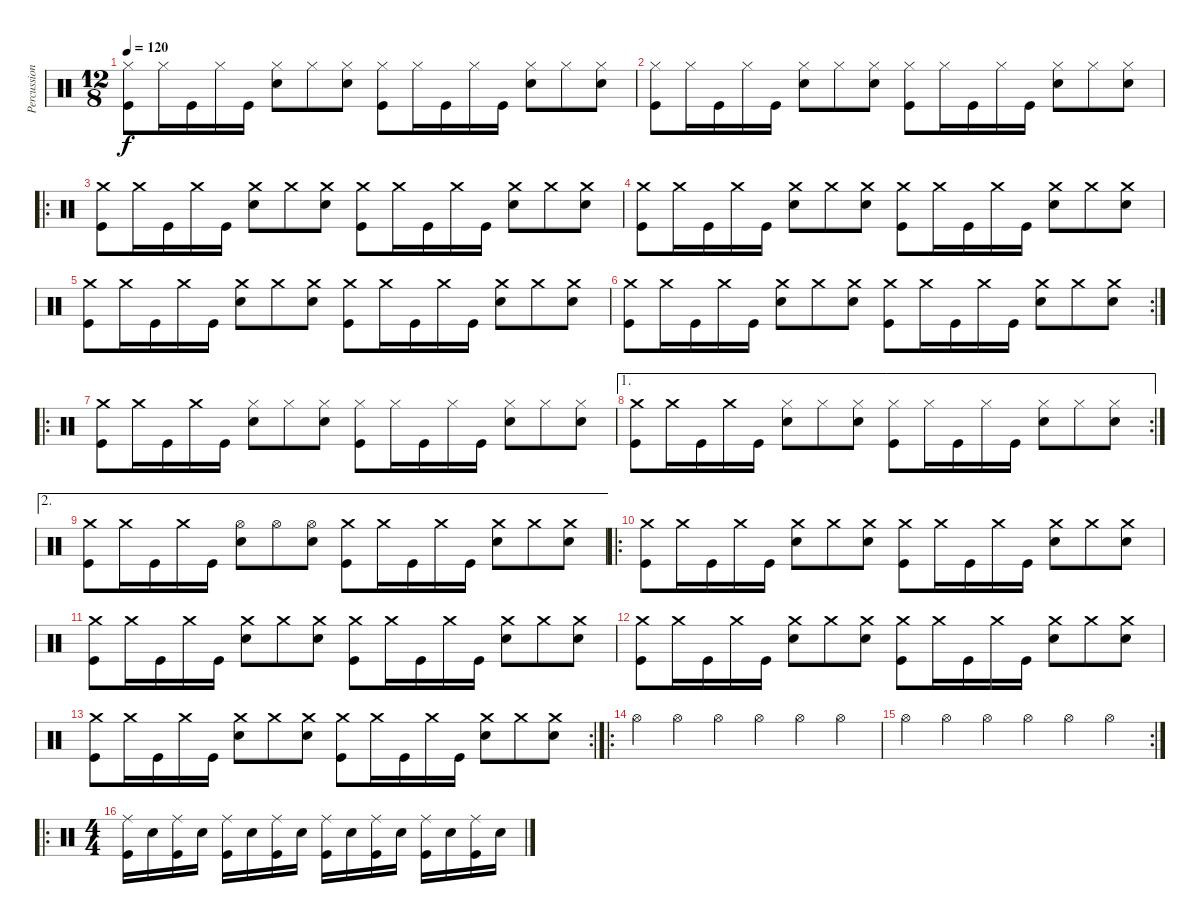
\track ("Percussion" "Percussion") {instrument percussion}
\staff {score}
\articulation defaults
\ts (12 8)
\tempo 120
\clef neutral
\ks c
("Hi-Hat (closed)" "Kick (hit)").8{dy f} "Hi-Hat (closed)".16 "Kick (hit)".16 "Hi-Hat (closed)".16 "Kick (hit)".16 ("Hi-Hat (closed)" "Snare (hit) 2").8 "Hi-Hat (closed)".8 ("Hi-Hat (closed)" "Snare (hit) 2").8 ("Hi-Hat (closed)" "Kick (hit)").8 "Hi-Hat (closed)".16 "Kick (hit)".16 "Hi-Hat (closed)".16 "Kick (hit)".16 ("Hi-Hat (closed)" "Snare (hit) 2").8 "Hi-Hat (closed)".8 ("Hi-Hat (closed)" "Snare (hit) 2").8 |
("Hi-Hat (closed)" "Kick (hit)").8 "Hi-Hat (closed)".16 "Kick (hit)".16 "Hi-Hat (closed)".16 "Kick (hit)".16 ("Hi-Hat (closed)" "Snare (hit) 2").8 "Hi-Hat (closed)".8 ("Hi-Hat (closed)" "Snare (hit) 2").8 ("Hi-Hat (closed)" "Kick (hit)").8 "Hi-Hat (closed)".16 "Kick (hit)".16 "Hi-Hat (closed)".16 "Kick (hit)".16 ("Hi-Hat (closed)" "Snare (hit) 2").8 "Hi-Hat (closed)".8 ("Hi-Hat (closed)" "Snare (hit) 2").8 |
\ro
("Crash medium (hit)" "Kick (hit)").8 "Crash medium (hit)".16 "Kick (hit)".16 "Crash medium (hit)".16 "Kick (hit)".16 ("Crash medium (hit)" "Snare (hit) 2").8 "Crash medium (hit)".8 ("Crash medium (hit)" "Snare (hit) 2").8 ("Crash medium (hit)" "Kick (hit)").8 "Crash medium (hit)".16 "Kick (hit)".16 "Crash medium (hit)".16 "Kick (hit)".16 ("Crash medium (hit)" "Snare (hit) 2").8 "Crash medium (hit)".8 ("Crash medium (hit)" "Snare (hit) 2").8 |
("Crash medium (hit)" "Kick (hit)").8 "Crash medium (hit)".16 "Kick (hit)".16 "Crash medium (hit)".16 "Kick (hit)".16 ("Crash medium (hit)" "Snare (hit) 2").8 "Crash medium (hit)".8 ("Crash medium (hit)" "Snare (hit) 2").8 ("Crash medium (hit)" "Kick (hit)").8 "Crash medium (hit)".16 "Kick (hit)".16 "Crash medium (hit)".16 "Kick (hit)".16 ("Crash medium (hit)" "Snare (hit) 2").8 "Crash medium (hit)".8 ("Crash medium (hit)" "Snare (hit) 2").8 |
("Crash medium (hit)" "Kick (hit)").8 "Crash medium (hit)".16 "Kick (hit)".16 "Crash medium (hit)".16 "Kick (hit)".16 ("Crash medium (hit)" "Snare (hit) 2").8 "Crash medium (hit)".8 ("Crash medium (hit)" "Snare (hit) 2").8 ("Crash medium (hit)" "Kick (hit)").8 "Crash medium (hit)".16 "Kick (hit)".16 "Crash medium (hit)".16 "Kick (hit)".16 ("Crash medium (hit)" "Snare (hit) 2").8 "Crash medium (hit)".8 ("Crash medium (hit)" "Snare (hit) 2").8 |
\rc 2
("Crash medium (hit)" "Kick (hit)").8 "Crash medium (hit)".16 "Kick (hit)".16 "Crash medium (hit)".16 "Kick (hit)".16 ("Crash medium (hit)" "Snare (hit) 2").8 "Crash medium (hit)".8 ("Crash medium (hit)" "Snare (hit) 2").8 ("Crash medium (hit)" "Kick (hit)").8 "Crash medium (hit)".16 "Kick (hit)".16 "Crash medium (hit)".16 "Kick (hit)".16 ("Crash medium (hit)" "Snare (hit) 2").8 "Crash medium (hit)".8 ("Crash medium (hit)" "Snare (hit) 2").8 |
\ro
("Crash medium (hit)" "Kick (hit)").8 "Crash medium (hit)".16 "Kick (hit)".16 "Crash medium (hit)".16 "Kick (hit)".16 ("Hi-Hat (closed)" "Snare (hit) 2").8 "Hi-Hat (closed)".8 ("Hi-Hat (closed)" "Snare (hit) 2").8 ("Hi-Hat (closed)" "Kick (hit)").8 "Hi-Hat (closed)".16 "Kick (hit)".16 "Hi-Hat (closed)".16 "Kick (hit)".16 ("Hi-Hat (closed)" "Snare (hit) 2").8 "Hi-Hat (closed)".8 ("Hi-Hat (closed)" "Snare (hit) 2").8 |
\ae 1
\rc 2
("Crash medium (hit)" "Kick (hit)").8 "Crash medium (hit)".16 "Kick (hit)".16 "Crash medium (hit)".16 "Kick (hit)".16 ("Hi-Hat (closed)" "Snare (hit) 2").8 "Hi-Hat (closed)".8 ("Hi-Hat (closed)" "Snare (hit) 2").8 ("Hi-Hat (closed)" "Kick (hit)").8 "Hi-Hat (closed)".16 "Kick (hit)".16 "Hi-Hat (closed)".16 "Kick (hit)".16 ("Hi-Hat (closed)" "Snare (hit) 2").8 "Hi-Hat (closed)".8 ("Hi-Hat (closed)" "Snare (hit) 2").8 |
\ae 2
("Crash medium (hit)" "Kick (hit)").8 "Crash medium (hit)".16 "Kick (hit)".16 "Crash medium (hit)".16 "Kick (hit)".16 ("Hi-Hat (open)" "Snare (hit) 2").8 "Hi-Hat (open)".8 ("Hi-Hat (open)" "Snare (hit) 2").8 ("Crash medium (hit)" "Kick (hit)").8 "Crash medium (hit)".16 "Kick (hit)".16 "Crash medium (hit)".16 "Kick (hit)".16 ("Crash medium (hit)" "Snare (hit) 2").8 "Crash medium (hit)".8 ("Crash medium (hit)" "Snare (hit) 2").8 |
\ro
("Crash medium (hit)" "Kick (hit)").8 "Crash medium (hit)".16 "Kick (hit)".16 "Crash medium (hit)".16 "Kick (hit)".16 ("Crash medium (hit)" "Snare (hit) 2").8 "Crash medium (hit)".8 ("Crash medium (hit)" "Snare (hit) 2").8 ("Crash medium (hit)" "Kick (hit)").8 "Crash medium (hit)".16 "Kick (hit)".16 "Crash medium (hit)".16 "Kick (hit)".16 ("Crash medium (hit)" "Snare (hit) 2").8 "Crash medium (hit)".8 ("Crash medium (hit)" "Snare (hit) 2").8 |
("Crash medium (hit)" "Kick (hit)").8 "Crash medium (hit)".16 "Kick (hit)".16 "Crash medium (hit)".16 "Kick (hit)".16 ("Crash medium (hit)" "Snare (hit) 2").8 "Crash medium (hit)".8 ("Crash medium (hit)" "Snare (hit) 2").8 ("Crash medium (hit)" "Kick (hit)").8 "Crash medium (hit)".16 "Kick (hit)".16 "Crash medium (hit)".16 "Kick (hit)".16 ("Crash medium (hit)" "Snare (hit) 2").8 "Crash medium (hit)".8 ("Crash medium (hit)" "Snare (hit) 2").8 |
("Crash medium (hit)" "Kick (hit)").8 "Crash medium (hit)".16 "Kick (hit)".16 "Crash medium (hit)".16 "Kick (hit)".16 ("Crash medium (hit)" "Snare (hit) 2").8 "Crash medium (hit)".8 ("Crash medium (hit)" "Snare (hit) 2").8 ("Crash medium (hit)" "Kick (hit)").8 "Crash medium (hit)".16 "Kick (hit)".16 "Crash medium (hit)".16 "Kick (hit)".16 ("Crash medium (hit)" "Snare (hit) 2").8 "Crash medium (hit)".8 ("Crash medium (hit)" "Snare (hit) 2").8 |
\rc 2
("Crash medium (hit)" "Kick (hit)").8 "Crash medium (hit)".16 "Kick (hit)".16 "Crash medium (hit)".16 "Kick (hit)".16 ("Crash medium (hit)" "Snare (hit) 2").8 "Crash medium (hit)".8 ("Crash medium (hit)" "Snare (hit) 2").8 ("Crash medium (hit)" "Kick (hit)").8 "Crash medium (hit)".16 "Kick (hit)".16 "Crash medium (hit)".16 "Kick (hit)".16 ("Crash medium (hit)" "Snare (hit) 2").8 "Crash medium (hit)".8 ("Crash medium (hit)" "Snare (hit) 2").8 |
\ro "Hi-Hat (open)".4 "Hi-Hat (open)".4 "Hi-Hat (open)".4 "Hi-Hat (open)".4 "Hi-Hat (open)".4 "Hi-Hat (open)".4
|
\rc 2 "Hi-Hat (open)".4 "Hi-Hat (open)".4 "Hi-Hat (open)".4 "Hi-Hat (open)".4 "Hi-Hat (open)".4 "Hi-Hat (open)".4
|
\ro
\ts (4 4)
("Ride (middle)" "Kick (hit)").16 "Snare (hit) 2".16 ("Ride (middle)" "Kick (hit)").16 "Snare (hit) 2".16 ("Ride (middle)" "Kick (hit)").16 "Snare (hit) 2".16 ("Ride (middle)" "Kick (hit)").16 "Snare (hit) 2".16 ("Ride (middle)" "Kick (hit)").16 "Snare (hit) 2".16 ("Ride (middle)" "Kick (hit)").16 "Snare (hit) 2".16 ("Ride (middle)" "Kick (hit)").16 "Snare (hit) 2".16 ("Ride (middle)" "Kick (hit)").16 "Snare (hit) 2".16
